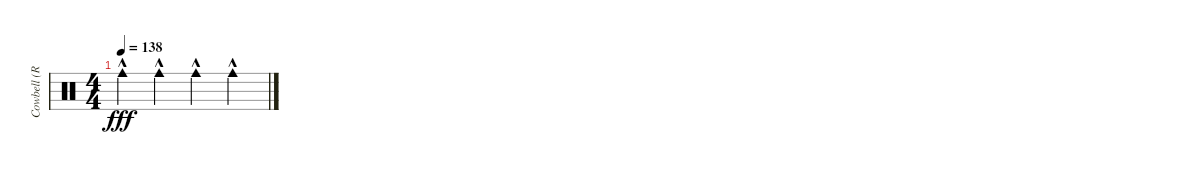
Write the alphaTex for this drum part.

\track ("Cowbell (Ringo Starr)" "Cowbell (R") {instrument percussion}
\staff {score}
\articulation defaults
\ts (4 4)
\tempo 138
\clef neutral
\ks c "Cowbell medium (hit)"{hac}.4{dy fff} "Cowbell medium (hit)"{hac}.4 "Cowbell medium (hit)"{hac}.4 "Cowbell medium (hit)"{hac}.4
